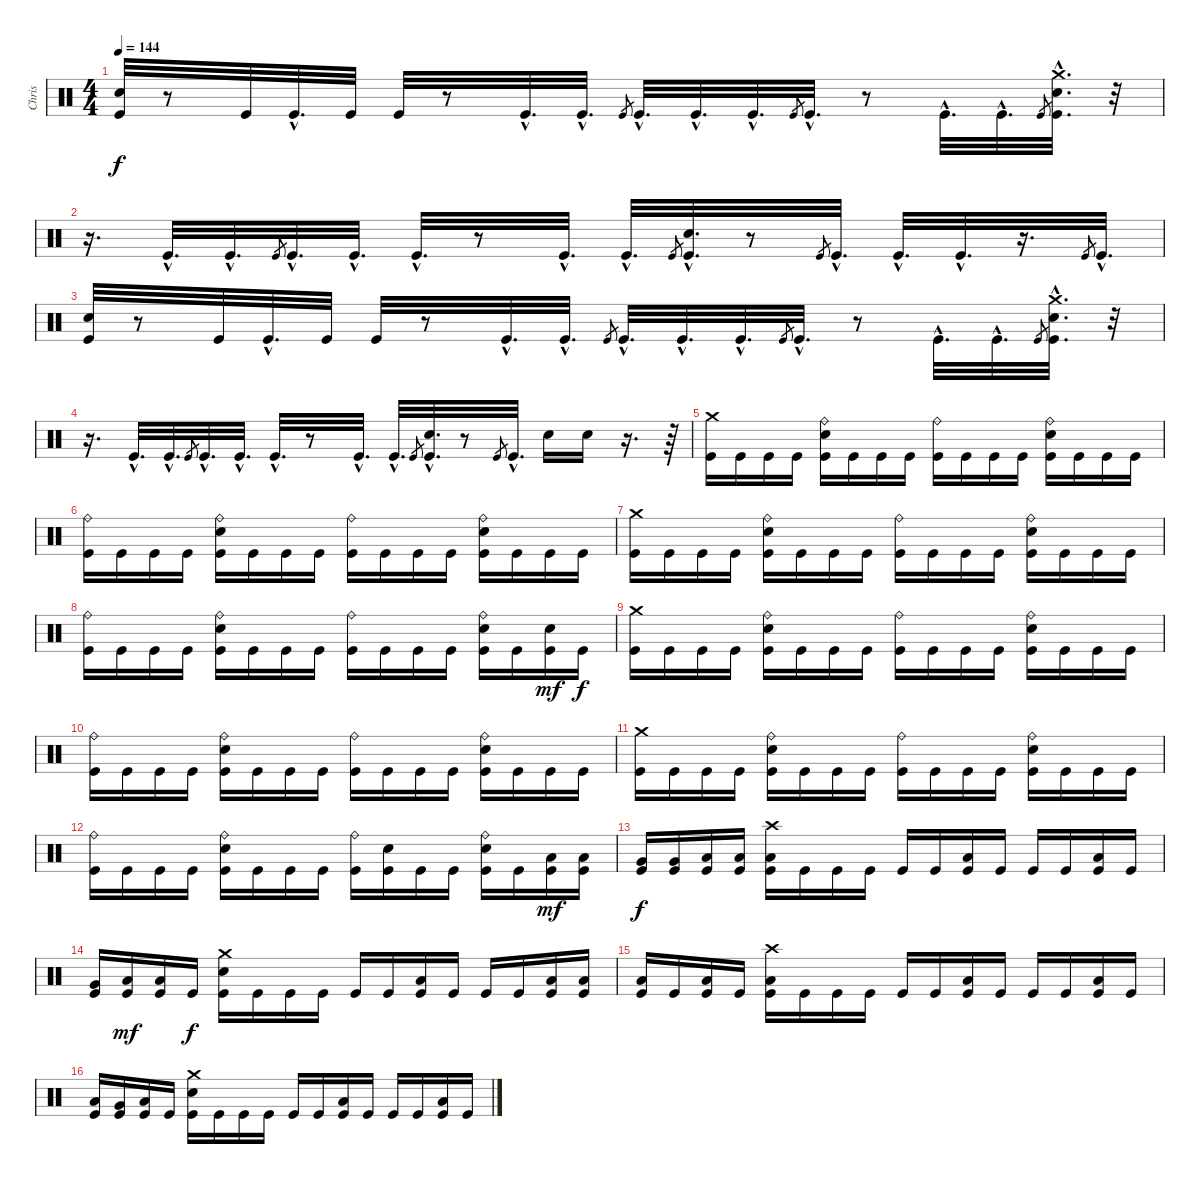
\track ("Chris" "Chris") {instrument percussion}
\staff {score}
\articulation defaults
\ts (4 4)
\tempo 144
\clef neutral
\ks c
("Electric Snare (hit)" "Kick (hit)").32{dy f} r.8 "Kick (hit)".32 "Kick (hit)"{hac}.32{d} "Kick (hit)".32 "Kick (hit)".32 r.8 "Kick (hit)"{hac}.32{d} "Kick (hit)"{hac}.32{d} "Kick (hit)".8{gr} "Kick (hit)"{hac}.32{d} "Kick (hit)"{hac}.32{d} "Kick (hit)"{hac}.32{d} "Kick (hit)".8{gr} "Kick (hit)"{hac}.32{d} r.8 "Kick (hit)"{hac}.32{d} "Kick (hit)"{hac}.32{d} "Kick (hit)".8{gr} ("Crash medium (hit)"{hac} "Electric Snare (hit)"{hac} "Kick (hit)"{hac}).32{d} r.32 |
r.16{d} "Kick (hit)"{hac}.32{d} "Kick (hit)"{hac}.32{d} "Kick (hit)".8{gr} "Kick (hit)"{hac}.32{d} "Kick (hit)"{hac}.32{d} "Kick (hit)"{hac}.32{d} r.8 "Kick (hit)"{hac}.32{d} "Kick (hit)"{hac}.32{d} "Kick (hit)".8{gr} ("Electric Snare (hit)"{hac} "Kick (hit)"{hac}).32{d} r.8 "Kick (hit)".8{gr} "Kick (hit)"{hac}.32{d} "Kick (hit)"{hac}.32{d} "Kick (hit)"{hac}.32{d} r.16{d} "Kick (hit)".8{gr} "Kick (hit)"{hac}.32{d} |
("Electric Snare (hit)" "Kick (hit)").32 r.8 "Kick (hit)".32 "Kick (hit)"{hac}.32{d} "Kick (hit)".32 "Kick (hit)".32 r.8 "Kick (hit)"{hac}.32{d} "Kick (hit)"{hac}.32{d} "Kick (hit)".8{gr} "Kick (hit)"{hac}.32{d} "Kick (hit)"{hac}.32{d} "Kick (hit)"{hac}.32{d} "Kick (hit)".8{gr} "Kick (hit)"{hac}.32{d} r.8 "Kick (hit)"{hac}.32{d} "Kick (hit)"{hac}.32{d} "Kick (hit)".8{gr} ("Crash medium (hit)"{hac} "Electric Snare (hit)"{hac} "Kick (hit)"{hac}).32{d} r.32 |
r.16{d} "Kick (hit)"{hac}.32{d} "Kick (hit)"{hac}.32{d} "Kick (hit)".8{gr} "Kick (hit)"{hac}.32{d} "Kick (hit)"{hac}.32{d} "Kick (hit)"{hac}.32{d} r.8 "Kick (hit)"{hac}.32{d} "Kick (hit)"{hac}.32{d} "Kick (hit)".8{gr} ("Electric Snare (hit)"{hac} "Kick (hit)"{hac}).32{d} r.8 "Kick (hit)".8{gr} "Kick (hit)"{hac}.32{d} "Electric Snare (hit)".16 "Electric Snare (hit)".16 r.16{d} r.64 |
("Crash medium (hit)" "Kick (hit)").16 "Kick (hit)".16 "Kick (hit)".16 "Kick (hit)".16 ("Ride (bell)" "Electric Snare (hit)" "Kick (hit)").16 "Kick (hit)".16 "Kick (hit)".16 "Kick (hit)".16 ("Ride (bell)" "Kick (hit)").16 "Kick (hit)".16 "Kick (hit)".16 "Kick (hit)".16 ("Ride (bell)" "Electric Snare (hit)" "Kick (hit)").16 "Kick (hit)".16 "Kick (hit)".16 "Kick (hit)".16 |
("Ride (bell)" "Kick (hit)").16 "Kick (hit)".16 "Kick (hit)".16 "Kick (hit)".16 ("Ride (bell)" "Electric Snare (hit)" "Kick (hit)").16 "Kick (hit)".16 "Kick (hit)".16 "Kick (hit)".16 ("Ride (bell)" "Kick (hit)").16 "Kick (hit)".16 "Kick (hit)".16 "Kick (hit)".16 ("Ride (bell)" "Electric Snare (hit)" "Kick (hit)").16 "Kick (hit)".16 "Kick (hit)".16 "Kick (hit)".16 |
("Crash medium (hit)" "Kick (hit)").16 "Kick (hit)".16 "Kick (hit)".16 "Kick (hit)".16 ("Ride (bell)" "Electric Snare (hit)" "Kick (hit)").16 "Kick (hit)".16 "Kick (hit)".16 "Kick (hit)".16 ("Ride (bell)" "Kick (hit)").16 "Kick (hit)".16 "Kick (hit)".16 "Kick (hit)".16 ("Ride (bell)" "Electric Snare (hit)" "Kick (hit)").16 "Kick (hit)".16 "Kick (hit)".16 "Kick (hit)".16 |
("Ride (bell)" "Kick (hit)").16 "Kick (hit)".16 "Kick (hit)".16 "Kick (hit)".16 ("Ride (bell)" "Electric Snare (hit)" "Kick (hit)").16 "Kick (hit)".16 "Kick (hit)".16 "Kick (hit)".16 ("Ride (bell)" "Kick (hit)").16 "Kick (hit)".16 "Kick (hit)".16 "Kick (hit)".16 ("Ride (bell)" "Electric Snare (hit)" "Kick (hit)").16 "Kick (hit)".16 ("Electric Snare (hit)" "Kick (hit)").16{dy mf} "Kick (hit)".16{dy f} |
("Crash medium (hit)" "Kick (hit)").16 "Kick (hit)".16 "Kick (hit)".16 "Kick (hit)".16 ("Ride (bell)" "Electric Snare (hit)" "Kick (hit)").16 "Kick (hit)".16 "Kick (hit)".16 "Kick (hit)".16 ("Ride (bell)" "Kick (hit)").16 "Kick (hit)".16 "Kick (hit)".16 "Kick (hit)".16 ("Ride (bell)" "Electric Snare (hit)" "Kick (hit)").16 "Kick (hit)".16 "Kick (hit)".16 "Kick (hit)".16 |
("Ride (bell)" "Kick (hit)").16 "Kick (hit)".16 "Kick (hit)".16 "Kick (hit)".16 ("Ride (bell)" "Electric Snare (hit)" "Kick (hit)").16 "Kick (hit)".16 "Kick (hit)".16 "Kick (hit)".16 ("Ride (bell)" "Kick (hit)").16 "Kick (hit)".16 "Kick (hit)".16 "Kick (hit)".16 ("Ride (bell)" "Electric Snare (hit)" "Kick (hit)").16 "Kick (hit)".16 "Kick (hit)".16 "Kick (hit)".16 |
("Crash medium (hit)" "Kick (hit)").16 "Kick (hit)".16 "Kick (hit)".16 "Kick (hit)".16 ("Ride (bell)" "Electric Snare (hit)" "Kick (hit)").16 "Kick (hit)".16 "Kick (hit)".16 "Kick (hit)".16 ("Ride (bell)" "Kick (hit)").16 "Kick (hit)".16 "Kick (hit)".16 "Kick (hit)".16 ("Ride (bell)" "Electric Snare (hit)" "Kick (hit)").16 "Kick (hit)".16 "Kick (hit)".16 "Kick (hit)".16 |
("Ride (bell)" "Kick (hit)").16 "Kick (hit)".16 "Kick (hit)".16 "Kick (hit)".16 ("Ride (bell)" "Electric Snare (hit)" "Kick (hit)").16 "Kick (hit)".16 "Kick (hit)".16 "Kick (hit)".16 ("Ride (bell)" "Kick (hit)").16 ("Electric Snare (hit)" "Kick (hit)").16 "Kick (hit)".16 "Kick (hit)".16 ("Ride (bell)" "Electric Snare (hit)" "Kick (hit)").16 "Kick (hit)".16 ("Low Tom (hit)" "Kick (hit)").16{dy mf} ("Low Tom (hit)" "Kick (hit)").16 |
("Very Low Tom (hit)" "Kick (hit)").16{dy f} ("Very Low Tom (hit)" "Kick (hit)").16 ("Low Floor Tom (hit)" "Kick (hit)").16 ("Low Floor Tom (hit)" "Kick (hit)").16 ("Crash high (hit)" "Low Floor Tom (hit)" "Kick (hit)").16 "Kick (hit)".16 "Kick (hit)".16 "Kick (hit)".16 "Kick (hit)".16 "Kick (hit)".16 ("Low Floor Tom (hit)" "Kick (hit)").16 "Kick (hit)".16 "Kick (hit)".16 "Kick (hit)".16 ("Low Floor Tom (hit)" "Kick (hit)").16 "Kick (hit)".16 |
("Very Low Tom (hit)" "Kick (hit)").16 ("Low Floor Tom (hit)" "Kick (hit)").16{dy mf} ("Low Floor Tom (hit)" "Kick (hit)").16 "Kick (hit)".16{dy f} ("Crash medium (hit)" "Electric Snare (hit)" "Kick (hit)").16 "Kick (hit)".16 "Kick (hit)".16 "Kick (hit)".16 "Kick (hit)".16 "Kick (hit)".16 ("Low Floor Tom (hit)" "Kick (hit)").16 "Kick (hit)".16 "Kick (hit)".16 "Kick (hit)".16 ("Low Floor Tom (hit)" "Kick (hit)").16 ("Low Floor Tom (hit)" "Kick (hit)").16 |
("Low Floor Tom (hit)" "Kick (hit)").16 "Kick (hit)".16 ("Low Floor Tom (hit)" "Kick (hit)").16 "Kick (hit)".16 ("Crash high (hit)" "Low Floor Tom (hit)" "Kick (hit)").16 "Kick (hit)".16 "Kick (hit)".16 "Kick (hit)".16 "Kick (hit)".16 "Kick (hit)".16 ("Low Floor Tom (hit)" "Kick (hit)").16 "Kick (hit)".16 "Kick (hit)".16 "Kick (hit)".16 ("Low Floor Tom (hit)" "Kick (hit)").16 "Kick (hit)".16 |
("Low Tom (hit)" "Kick (hit)").16 ("Very Low Tom (hit)" "Kick (hit)").16 ("Low Floor Tom (hit)" "Kick (hit)").16 "Kick (hit)".16 ("Crash medium (hit)" "Electric Snare (hit)" "Kick (hit)").16 "Kick (hit)".16 "Kick (hit)".16 "Kick (hit)".16 "Kick (hit)".16 "Kick (hit)".16 ("Low Floor Tom (hit)" "Kick (hit)").16 "Kick (hit)".16 "Kick (hit)".16 "Kick (hit)".16 ("Low Floor Tom (hit)" "Kick (hit)").16 "Kick (hit)".16
